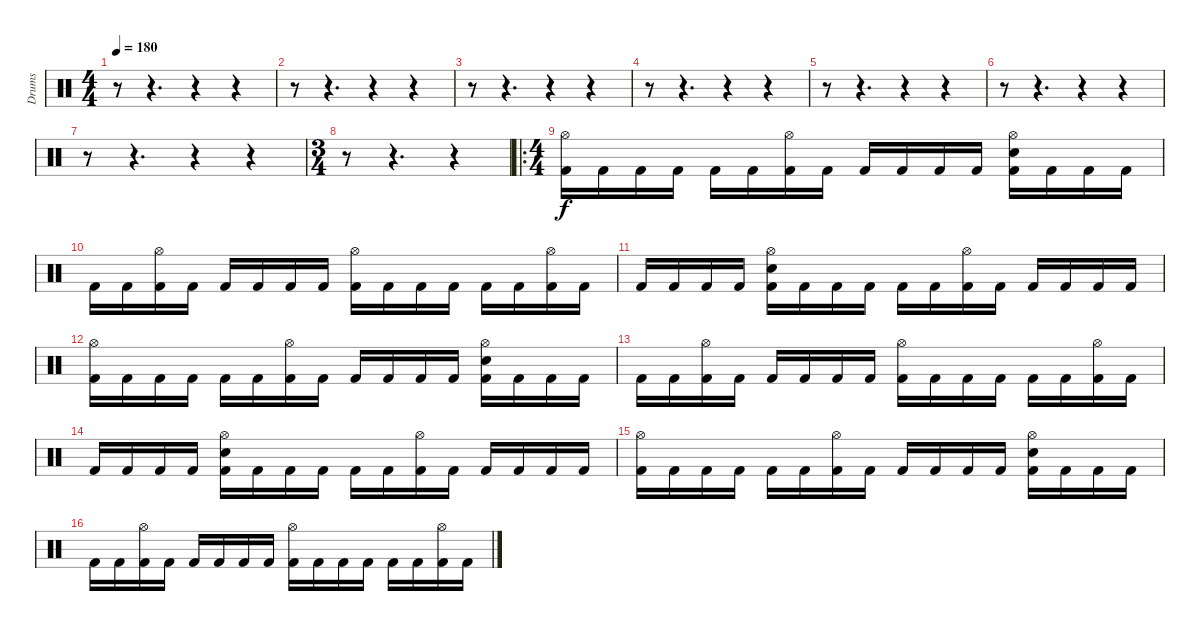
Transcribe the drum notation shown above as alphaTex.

\track ("Drums" "Drums") {instrument percussion}
\staff {score}
\articulation defaults
\ts (4 4)
\tempo 180
\clef neutral
\ks c
r.8{dy f} r.4{d} r.4 r.4 |
r.8 r.4{d} r.4 r.4 |
r.8 r.4{d} r.4 r.4 |
r.8 r.4{d} r.4 r.4 |
r.8 r.4{d} r.4 r.4 |
r.8 r.4{d} r.4 r.4 |
r.8 r.4{d} r.4 r.4 |
\ts (3 4)
r.8 r.4{d} r.4 |
\ro
\ts (4 4)
("Hi-Hat (open)" "Kick (hit) 2").16 "Kick (hit) 2".16 "Kick (hit) 2".16 "Kick (hit) 2".16 "Kick (hit) 2".16 "Kick (hit) 2".16 ("Hi-Hat (open)" "Kick (hit) 2").16 "Kick (hit) 2".16 "Kick (hit) 2".16 "Kick (hit) 2".16 "Kick (hit) 2".16 "Kick (hit) 2".16 ("Hi-Hat (open)" "Electric Snare (hit)" "Kick (hit) 2").16 "Kick (hit) 2".16 "Kick (hit) 2".16 "Kick (hit) 2".16 |
"Kick (hit) 2".16 "Kick (hit) 2".16 ("Hi-Hat (open)" "Kick (hit) 2").16 "Kick (hit) 2".16 "Kick (hit) 2".16 "Kick (hit) 2".16 "Kick (hit) 2".16 "Kick (hit) 2".16 ("Hi-Hat (open)" "Kick (hit) 2").16 "Kick (hit) 2".16 "Kick (hit) 2".16 "Kick (hit) 2".16 "Kick (hit) 2".16 "Kick (hit) 2".16 ("Hi-Hat (open)" "Kick (hit) 2").16 "Kick (hit) 2".16 |
"Kick (hit) 2".16 "Kick (hit) 2".16 "Kick (hit) 2".16 "Kick (hit) 2".16 ("Hi-Hat (open)" "Electric Snare (hit)" "Kick (hit) 2").16 "Kick (hit) 2".16 "Kick (hit) 2".16 "Kick (hit) 2".16 "Kick (hit) 2".16 "Kick (hit) 2".16 ("Hi-Hat (open)" "Kick (hit) 2").16 "Kick (hit) 2".16 "Kick (hit) 2".16 "Kick (hit) 2".16 "Kick (hit) 2".16 "Kick (hit) 2".16 |
("Hi-Hat (open)" "Kick (hit) 2").16 "Kick (hit) 2".16 "Kick (hit) 2".16 "Kick (hit) 2".16 "Kick (hit) 2".16 "Kick (hit) 2".16 ("Hi-Hat (open)" "Kick (hit) 2").16 "Kick (hit) 2".16 "Kick (hit) 2".16 "Kick (hit) 2".16 "Kick (hit) 2".16 "Kick (hit) 2".16 ("Hi-Hat (open)" "Electric Snare (hit)" "Kick (hit) 2").16 "Kick (hit) 2".16 "Kick (hit) 2".16 "Kick (hit) 2".16 |
"Kick (hit) 2".16 "Kick (hit) 2".16 ("Hi-Hat (open)" "Kick (hit) 2").16 "Kick (hit) 2".16 "Kick (hit) 2".16 "Kick (hit) 2".16 "Kick (hit) 2".16 "Kick (hit) 2".16 ("Hi-Hat (open)" "Kick (hit) 2").16 "Kick (hit) 2".16 "Kick (hit) 2".16 "Kick (hit) 2".16 "Kick (hit) 2".16 "Kick (hit) 2".16 ("Hi-Hat (open)" "Kick (hit) 2").16 "Kick (hit) 2".16 |
"Kick (hit) 2".16 "Kick (hit) 2".16 "Kick (hit) 2".16 "Kick (hit) 2".16 ("Hi-Hat (open)" "Electric Snare (hit)" "Kick (hit) 2").16 "Kick (hit) 2".16 "Kick (hit) 2".16 "Kick (hit) 2".16 "Kick (hit) 2".16 "Kick (hit) 2".16 ("Hi-Hat (open)" "Kick (hit) 2").16 "Kick (hit) 2".16 "Kick (hit) 2".16 "Kick (hit) 2".16 "Kick (hit) 2".16 "Kick (hit) 2".16 |
("Hi-Hat (open)" "Kick (hit) 2").16 "Kick (hit) 2".16 "Kick (hit) 2".16 "Kick (hit) 2".16 "Kick (hit) 2".16 "Kick (hit) 2".16 ("Hi-Hat (open)" "Kick (hit) 2").16 "Kick (hit) 2".16 "Kick (hit) 2".16 "Kick (hit) 2".16 "Kick (hit) 2".16 "Kick (hit) 2".16 ("Hi-Hat (open)" "Electric Snare (hit)" "Kick (hit) 2").16 "Kick (hit) 2".16 "Kick (hit) 2".16 "Kick (hit) 2".16 |
"Kick (hit) 2".16 "Kick (hit) 2".16 ("Hi-Hat (open)" "Kick (hit) 2").16 "Kick (hit) 2".16 "Kick (hit) 2".16 "Kick (hit) 2".16 "Kick (hit) 2".16 "Kick (hit) 2".16 ("Hi-Hat (open)" "Kick (hit) 2").16 "Kick (hit) 2".16 "Kick (hit) 2".16 "Kick (hit) 2".16 "Kick (hit) 2".16 "Kick (hit) 2".16 ("Hi-Hat (open)" "Kick (hit) 2").16 "Kick (hit) 2".16
